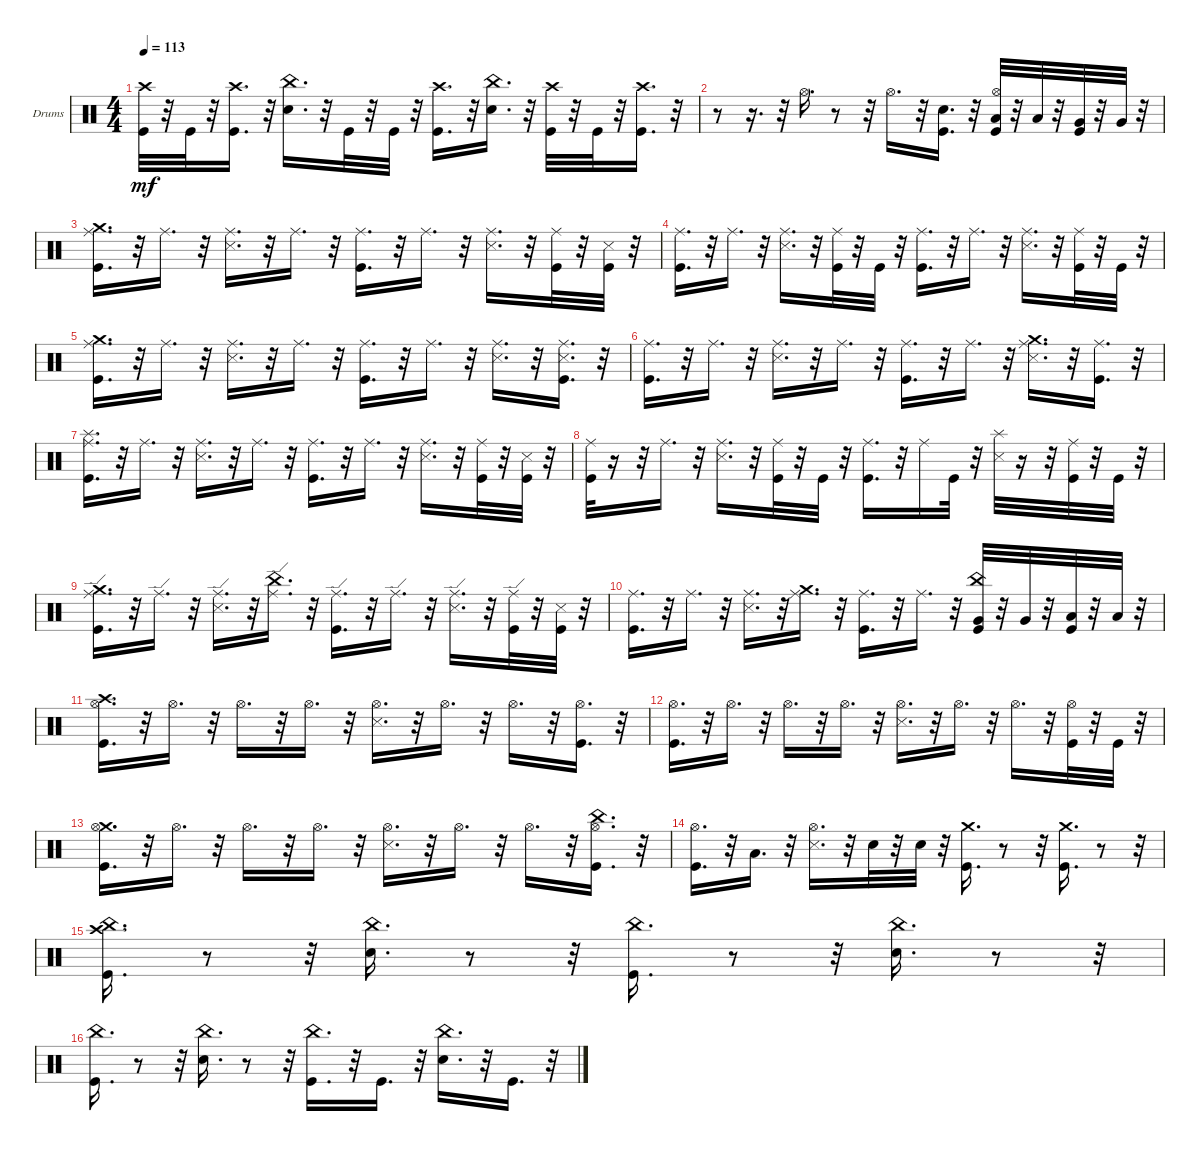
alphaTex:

\bracketExtendMode groupsimilarinstruments
\firstSystemTrackNameOrientation horizontal
\otherSystemsTrackNameOrientation horizontal
\track ("Drumkit" "Drums") {instrument percussion}
\staff {score}
\articulation defaults
\ts (4 4)
\tempo 113
\clef neutral
\ks c
("Crash high (hit)" "Kick (hit)").32{dy mf} r.32 "Kick (hit)".32 r.32 ("Crash high (hit)" "Kick (hit)").16{d} r.32 ("China (hit)" "Snare (hit) 2").16{d} r.32 "Kick (hit)".32 r.32 "Kick (hit)".32 r.32 ("Crash high (hit)" "Kick (hit)").16{d} r.32 ("China (hit)" "Snare (hit) 2").16{d} r.32 ("Crash high (hit)" "Kick (hit)").32 r.32 "Kick (hit)".32 r.32 ("Crash high (hit)" "Kick (hit)").16{d} r.32 |
r.8 r.16{d} r.32 "Hi-Hat (open)".16{d} r.8 r.32 "Hi-Hat (open)".16{d} r.32 ("Snare (hit) 2" "Kick (hit)").16{d} r.32 ("Low Tom (hit)" "Hi-Hat (open)" "Kick (hit)").32 r.32 "Low Tom (hit)".32 r.32 ("Very Low Tom (hit)" "Kick (hit)").32 r.32 "Very Low Tom (hit)".32 r.32 |
("Ride (middle)" "Kick (hit)" "Crash medium (hit)").16{d} r.32 "Ride (middle)".16{d} r.32 ("Ride (middle)" "Snare (side stick) 3").16{d} r.32 "Ride (middle)".16{d} r.32 ("Ride (middle)" "Kick (hit)").16{d} r.32 "Ride (middle)".16{d} r.32 ("Ride (middle)" "Snare (side stick) 3").16{d} r.32 ("Ride (middle)" "Kick (hit)").32 r.32 ("Snare (side stick) 3" "Kick (hit)").32 r.32 |
("Ride (middle)" "Kick (hit)").16{d} r.32 "Ride (middle)".16{d} r.32 ("Ride (middle)" "Snare (side stick) 3").16{d} r.32 ("Ride (middle)" "Kick (hit)").32 r.32 "Kick (hit)".32 r.32 ("Ride (middle)" "Kick (hit)").16{d} r.32 "Ride (middle)".16{d} r.32 ("Ride (middle)" "Snare (side stick) 3").16{d} r.32 ("Ride (middle)" "Kick (hit)").32 r.32 "Kick (hit)".32 r.32 |
("Ride (middle)" "Crash medium (hit)" "Kick (hit)").16{d} r.32 "Ride (middle)".16{d} r.32 ("Ride (middle)" "Snare (side stick) 3").16{d} r.32 "Ride (middle)".16{d} r.32 ("Ride (middle)" "Kick (hit)").16{d} r.32 "Ride (middle)".16{d} r.32 ("Ride (middle)" "Snare (side stick) 3").16{d} r.32 ("Ride (middle)" "Snare (side stick) 3" "Kick (hit)").16{d} r.32 |
("Ride (middle)" "Kick (hit)").16{d} r.32 "Ride (middle)".16{d} r.32 ("Ride (middle)" "Snare (side stick) 3").16{d} r.32 "Ride (middle)".16{d} r.32 ("Ride (middle)" "Kick (hit)").16{d} r.32 "Ride (middle)".16{d} r.32 ("Ride (middle)" "Snare (side stick) 3" "Crash medium (hit)").16{d} r.32 ("Ride (middle)" "Kick (hit)").16{d} r.32 |
("Ride (middle)" "Splash (hit)" "Kick (hit)").16{d} r.32 "Ride (middle)".16{d} r.32 ("Ride (middle)" "Snare (side stick) 3").16{d} r.32 "Ride (middle)".16{d} r.32 ("Ride (middle)" "Kick (hit)").16{d} r.32 "Ride (middle)".16{d} r.32 ("Ride (middle)" "Snare (side stick) 3").16{d} r.32 ("Ride (middle)" "Kick (hit)").32 r.32 ("Snare (side stick) 3" "Kick (hit)").32 r.32 |
("Ride (middle)" "Kick (hit)").32 r.16 r.32 "Ride (middle)".16{d} r.32 ("Ride (middle)" "Snare (side stick) 3").16{d} r.32 ("Ride (middle)" "Kick (hit)").32 r.32 "Kick (hit)".32 r.32 ("Ride (middle)" "Kick (hit)").16{d} r.32 "Ride (middle)".16 "Kick (hit)".32 r.32 ("Splash (hit)" "Snare (side stick) 3").32 r.16 r.32 ("Kick (hit)" "Ride (middle)").32 r.32 "Kick (hit)".32 r.32 |
("Kick (hit)" "Crash medium (hit)" "Ride (edge)").16{d} r.32 "Ride (edge)".16{d} r.32 ("Snare (side stick) 3" "Ride (edge)").16{d} r.32 ("Ride (edge)" "China (hit)").16{d} r.32 ("Kick (hit)" "Ride (edge)").16{d} r.32 "Ride (edge)".16{d} r.32 ("Snare (side stick) 3" "Ride (edge)").16{d} r.32 ("Kick (hit)" "Ride (edge)").32 r.32 ("Snare (side stick) 3" "Kick (hit)").32 r.32 |
("Kick (hit)" "Ride (middle)").16{d} r.32 "Ride (middle)".16{d} r.32 ("Ride (middle)" "Snare (side stick) 3").16{d} r.32 ("Ride (middle)" "Crash medium (hit)").16{d} r.32 ("Ride (middle)" "Kick (hit)").16{d} r.32 "Ride (middle)".16{d} r.32 ("China (hit)" "Very Low Tom (hit)" "Kick (hit)").32 r.32 "Very Low Tom (hit)".32 r.32 ("Low Tom (hit)" "Kick (hit)").32 r.32 "Low Tom (hit)".32 r.32 |
("Crash high (hit)" "Hi-Hat (open)" "Kick (hit)").16{d} r.32 "Hi-Hat (open)".16{d} r.32 "Hi-Hat (open)".16{d} r.32 "Hi-Hat (open)".16{d} r.32 ("Hi-Hat (open)" "Snare (side stick) 3").16{d} r.32 "Hi-Hat (open)".16{d} r.32 "Hi-Hat (open)".16{d} r.32 ("Hi-Hat (open)" "Kick (hit)").16{d} r.32 |
("Hi-Hat (open)" "Kick (hit)").16{d} r.32 "Hi-Hat (open)".16{d} r.32 "Hi-Hat (open)".16{d} r.32 "Hi-Hat (open)".16{d} r.32 ("Hi-Hat (open)" "Snare (side stick) 3").16{d} r.32 "Hi-Hat (open)".16{d} r.32 "Hi-Hat (open)".16{d} r.32 ("Hi-Hat (open)" "Kick (hit)").32 r.32 "Kick (hit)".32 r.32 |
("Crash medium (hit)" "Hi-Hat (open)" "Kick (hit)").16{d} r.32 "Hi-Hat (open)".16{d} r.32 "Hi-Hat (open)".16{d} r.32 "Hi-Hat (open)".16{d} r.32 ("Hi-Hat (open)" "Snare (side stick) 3").16{d} r.32 "Hi-Hat (open)".16{d} r.32 "Hi-Hat (open)".16{d} r.32 ("Kick (hit)" "Hi-Hat (open)" "China (hit)").16{d} r.32 |
("Hi-Hat (open)" "Kick (hit)").16{d} r.32 "Low Tom (hit)".16{d} r.32 ("Hi-Hat (open)" "Snare (side stick) 3").16{d} r.32 "Snare (hit) 2".32 r.32 "Snare (hit) 2".32 r.32 ("Kick (hit)" "Crash medium (hit)").16{d} r.8 r.32 ("Crash medium (hit)" "Kick (hit)").16{d} r.8 r.32 |
("Crash high (hit)" "China (hit)" "Kick (hit)").16{d} r.8 r.32 ("China (hit)" "Snare (hit) 2").16{d} r.8 r.32 ("China (hit)" "Kick (hit)").16{d} r.8 r.32 ("China (hit)" "Snare (hit) 2").16{d} r.8 r.32 |
("China (hit)" "Kick (hit)").16{d} r.8 r.32 ("China (hit)" "Snare (hit) 2").16{d} r.8 r.32 ("China (hit)" "Kick (hit)").16{d} r.32 "Kick (hit)".16{d} r.32 ("China (hit)" "Snare (hit) 2").16{d} r.32 "Kick (hit)".16{d} r.32
